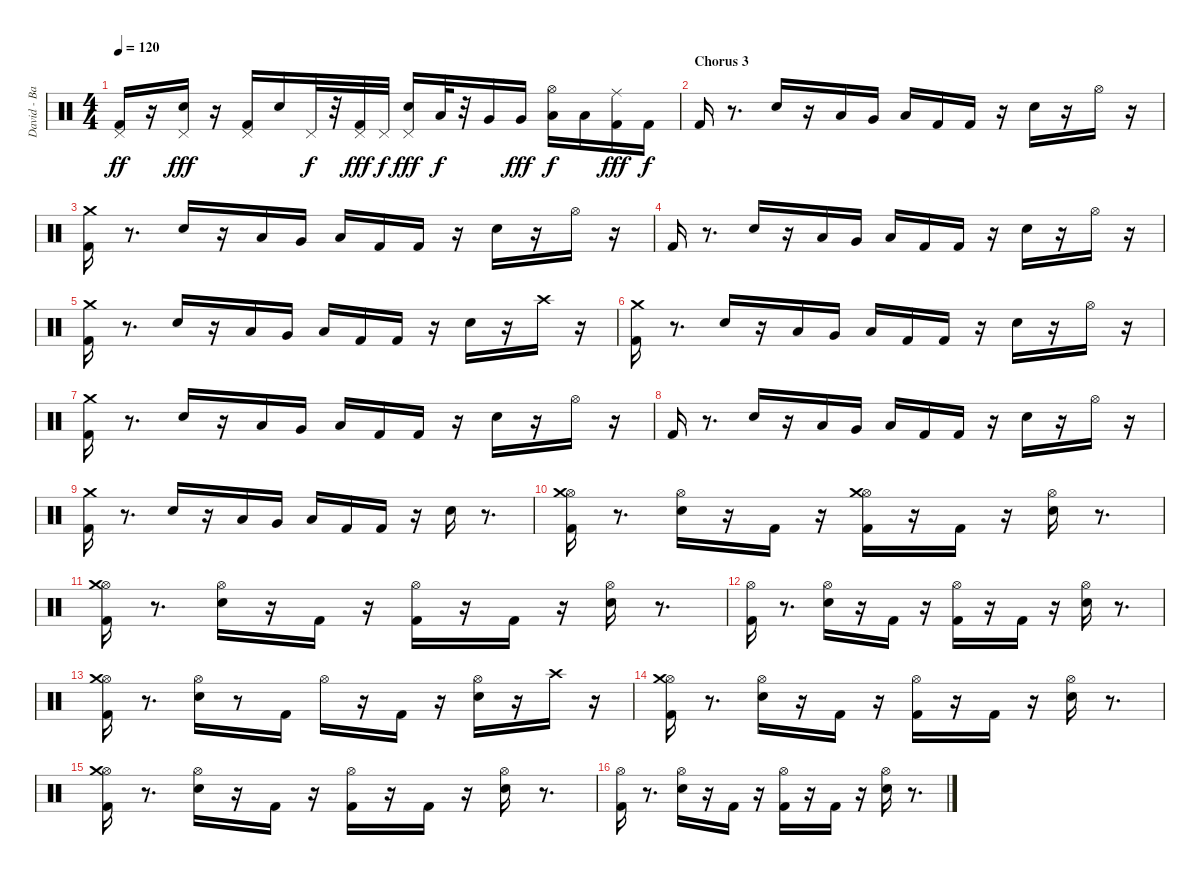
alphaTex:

\track ("David - Batterie" "David - Ba") {instrument percussion}
\staff {score}
\articulation defaults
\ts (4 4)
\tempo 120
\clef neutral
\ks c
("Kick (hit) 2" "Pedal Hi-Hat (hit)").16{dy ff} r.16 ("Electric Snare (hit)" "Pedal Hi-Hat (hit)").16{dy fff} r.16 ("Kick (hit) 2" "Pedal Hi-Hat (hit)").16 "Electric Snare (hit)".16 "Pedal Hi-Hat (hit)".32{dy f} r.32 ("Kick (hit) 2" "Pedal Hi-Hat (hit)").32{dy fff} "Pedal Hi-Hat (hit)".32{dy f} ("Electric Snare (hit)" "Pedal Hi-Hat (hit)").16{dy fff} "Low Tom (hit)".32{dy f} r.32 "Very Low Tom (hit)".16 "Very Low Tom (hit)".16{dy fff} ("Low Floor Tom (hit)" "Hi-Hat (open)").16{dy f} "Low Floor Tom (hit)".16 ("Ride (middle)" "Kick (hit) 2").16{dy fff} "Kick (hit) 2".16{dy f} |
\section ("" "Chorus 3")
"Kick (hit) 2".16 r.8{d} "Electric Snare (hit)".16 r.16 "Low Tom (hit)".16 "Very Low Tom (hit)".16 "Low Floor Tom (hit)".16 "Kick (hit) 2".16 "Kick (hit) 2".16 r.16 "Electric Snare (hit)".16 r.16 "Hi-Hat (open)".16 r.16 |
("Kick (hit) 2" "Crash medium (hit)").16 r.8{d} "Electric Snare (hit)".16 r.16 "Low Tom (hit)".16 "Very Low Tom (hit)".16 "Low Floor Tom (hit)".16 "Kick (hit) 2".16 "Kick (hit) 2".16 r.16 "Electric Snare (hit)".16 r.16 "Hi-Hat (open)".16 r.16 |
"Kick (hit) 2".16 r.8{d} "Electric Snare (hit)".16 r.16 "Low Tom (hit)".16 "Very Low Tom (hit)".16 "Low Floor Tom (hit)".16 "Kick (hit) 2".16 "Kick (hit) 2".16 r.16 "Electric Snare (hit)".16 r.16 "Hi-Hat (open)".16 r.16 |
("Crash medium (hit)" "Kick (hit) 2").16 r.8{d} "Electric Snare (hit)".16 r.16 "Low Tom (hit)".16 "Very Low Tom (hit)".16 "Low Floor Tom (hit)".16 "Kick (hit) 2".16 "Kick (hit) 2".16 r.16 "Electric Snare (hit)".16 r.16 "Crash high (hit)".16 r.16 |
("Kick (hit) 2" "Crash medium (hit)").16 r.8{d} "Electric Snare (hit)".16 r.16 "Low Tom (hit)".16 "Very Low Tom (hit)".16 "Low Floor Tom (hit)".16 "Kick (hit) 2".16 "Kick (hit) 2".16 r.16 "Electric Snare (hit)".16 r.16 "Hi-Hat (open)".16 r.16 |
("Crash medium (hit)" "Kick (hit) 2").16 r.8{d} "Electric Snare (hit)".16 r.16 "Low Tom (hit)".16 "Very Low Tom (hit)".16 "Low Floor Tom (hit)".16 "Kick (hit) 2".16 "Kick (hit) 2".16 r.16 "Electric Snare (hit)".16 r.16 "Hi-Hat (open)".16 r.16 |
"Kick (hit) 2".16 r.8{d} "Electric Snare (hit)".16 r.16 "Low Tom (hit)".16 "Very Low Tom (hit)".16 "Low Floor Tom (hit)".16 "Kick (hit) 2".16 "Kick (hit) 2".16 r.16 "Electric Snare (hit)".16 r.16 "Hi-Hat (open)".16 r.16 |
("Kick (hit) 2" "Crash medium (hit)").16 r.8{d} "Electric Snare (hit)".16 r.16 "Low Tom (hit)".16 "Very Low Tom (hit)".16 "Low Floor Tom (hit)".16 "Kick (hit) 2".16 "Kick (hit) 2".16 r.16 "Electric Snare (hit)".16 r.8{d} |
("Kick (hit) 2" "Hi-Hat (open)" "Crash medium (hit)").16 r.8{d} ("Electric Snare (hit)" "Hi-Hat (open)").16 r.16 "Kick (hit) 2".16 r.16 ("Hi-Hat (open)" "Kick (hit) 2" "Crash medium (hit)").16 r.16 "Kick (hit) 2".16 r.16 ("Electric Snare (hit)" "Hi-Hat (open)").16 r.8{d} |
("Hi-Hat (open)" "Kick (hit) 2" "Crash medium (hit)").16 r.8{d} ("Hi-Hat (open)" "Electric Snare (hit)").16 r.16 "Kick (hit) 2".16 r.16 ("Kick (hit) 2" "Hi-Hat (open)").16 r.16 "Kick (hit) 2".16 r.16 ("Hi-Hat (open)" "Electric Snare (hit)").16 r.8{d} |
("Hi-Hat (open)" "Kick (hit) 2").16 r.8{d} ("Hi-Hat (open)" "Electric Snare (hit)").16 r.16 "Kick (hit) 2".16 r.16 ("Kick (hit) 2" "Hi-Hat (open)").16 r.16 "Kick (hit) 2".16 r.16 ("Hi-Hat (open)" "Electric Snare (hit)").16 r.8{d} |
("Kick (hit) 2" "Hi-Hat (open)" "Crash medium (hit)").16 r.8{d} ("Electric Snare (hit)" "Hi-Hat (open)").16 r.8 "Kick (hit) 2".16 "Hi-Hat (open)".16 r.16 "Kick (hit) 2".16 r.16 ("Electric Snare (hit)" "Hi-Hat (open)").16 r.16 "Crash high (hit)".16 r.16 |
("Hi-Hat (open)" "Kick (hit) 2" "Crash medium (hit)").16 r.8{d} ("Hi-Hat (open)" "Electric Snare (hit)").16 r.16 "Kick (hit) 2".16 r.16 ("Kick (hit) 2" "Hi-Hat (open)").16 r.16 "Kick (hit) 2".16 r.16 ("Hi-Hat (open)" "Electric Snare (hit)").16 r.8{d} |
("Kick (hit) 2" "Hi-Hat (open)" "Crash medium (hit)").16 r.8{d} ("Electric Snare (hit)" "Hi-Hat (open)").16 r.16 "Kick (hit) 2".16 r.16 ("Hi-Hat (open)" "Kick (hit) 2").16 r.16 "Kick (hit) 2".16 r.16 ("Electric Snare (hit)" "Hi-Hat (open)").16 r.8{d} |
("Kick (hit) 2" "Hi-Hat (open)").16 r.8{d} ("Electric Snare (hit)" "Hi-Hat (open)").16 r.16 "Kick (hit) 2".16 r.16 ("Hi-Hat (open)" "Kick (hit) 2").16 r.16 "Kick (hit) 2".16 r.16 ("Electric Snare (hit)" "Hi-Hat (open)").16 r.8{d}
